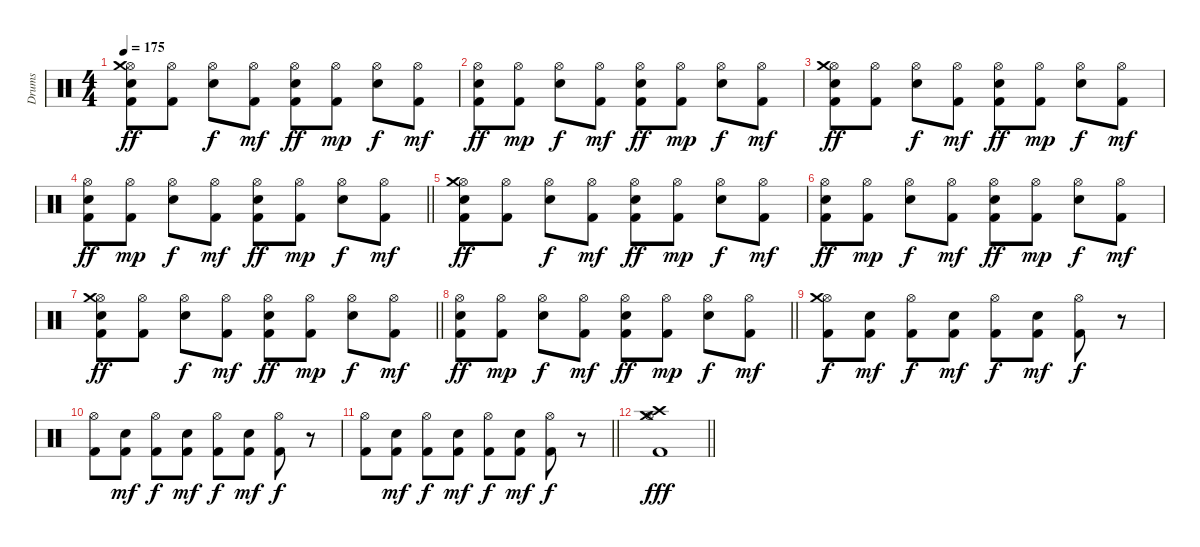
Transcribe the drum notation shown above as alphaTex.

\track ("Drums" "Drums") {instrument percussion}
\staff {score}
\articulation defaults
\ts (4 4)
\tempo 175
\clef neutral
\ks c
("Hi-Hat (open)" "Crash medium (hit)" "Electric Snare (hit)" "Kick (hit) 2").8{dy ff} ("Hi-Hat (open)" "Kick (hit) 2").8 ("Hi-Hat (open)" "Electric Snare (hit)").8{dy f} ("Hi-Hat (open)" "Kick (hit) 2").8{dy mf} ("Hi-Hat (open)" "Electric Snare (hit)" "Kick (hit) 2").8{dy ff} ("Hi-Hat (open)" "Kick (hit) 2").8{dy mp} ("Hi-Hat (open)" "Electric Snare (hit)").8{dy f} ("Hi-Hat (open)" "Kick (hit) 2").8{dy mf} |
("Hi-Hat (open)" "Electric Snare (hit)" "Kick (hit) 2").8{dy ff} ("Hi-Hat (open)" "Kick (hit) 2").8{dy mp} ("Hi-Hat (open)" "Electric Snare (hit)").8{dy f} ("Hi-Hat (open)" "Kick (hit) 2").8{dy mf} ("Hi-Hat (open)" "Electric Snare (hit)" "Kick (hit) 2").8{dy ff} ("Hi-Hat (open)" "Kick (hit) 2").8{dy mp} ("Hi-Hat (open)" "Electric Snare (hit)").8{dy f} ("Hi-Hat (open)" "Kick (hit) 2").8{dy mf} |
("Hi-Hat (open)" "Crash medium (hit)" "Electric Snare (hit)" "Kick (hit) 2").8{dy ff} ("Hi-Hat (open)" "Kick (hit) 2").8 ("Hi-Hat (open)" "Electric Snare (hit)").8{dy f} ("Hi-Hat (open)" "Kick (hit) 2").8{dy mf} ("Hi-Hat (open)" "Electric Snare (hit)" "Kick (hit) 2").8{dy ff} ("Hi-Hat (open)" "Kick (hit) 2").8{dy mp} ("Hi-Hat (open)" "Electric Snare (hit)").8{dy f} ("Hi-Hat (open)" "Kick (hit) 2").8{dy mf} |
\barLineRight lightlight
("Hi-Hat (open)" "Electric Snare (hit)" "Kick (hit) 2").8{dy ff} ("Hi-Hat (open)" "Kick (hit) 2").8{dy mp} ("Hi-Hat (open)" "Electric Snare (hit)").8{dy f} ("Hi-Hat (open)" "Kick (hit) 2").8{dy mf} ("Hi-Hat (open)" "Electric Snare (hit)" "Kick (hit) 2").8{dy ff} ("Hi-Hat (open)" "Kick (hit) 2").8{dy mp} ("Hi-Hat (open)" "Electric Snare (hit)").8{dy f} ("Hi-Hat (open)" "Kick (hit) 2").8{dy mf} |
("Hi-Hat (open)" "Crash medium (hit)" "Electric Snare (hit)" "Kick (hit) 2").8{dy ff} ("Hi-Hat (open)" "Kick (hit) 2").8 ("Hi-Hat (open)" "Electric Snare (hit)").8{dy f} ("Hi-Hat (open)" "Kick (hit) 2").8{dy mf} ("Hi-Hat (open)" "Electric Snare (hit)" "Kick (hit) 2").8{dy ff} ("Hi-Hat (open)" "Kick (hit) 2").8{dy mp} ("Hi-Hat (open)" "Electric Snare (hit)").8{dy f} ("Hi-Hat (open)" "Kick (hit) 2").8{dy mf} |
("Hi-Hat (open)" "Electric Snare (hit)" "Kick (hit) 2").8{dy ff} ("Hi-Hat (open)" "Kick (hit) 2").8{dy mp} ("Hi-Hat (open)" "Electric Snare (hit)").8{dy f} ("Hi-Hat (open)" "Kick (hit) 2").8{dy mf} ("Hi-Hat (open)" "Electric Snare (hit)" "Kick (hit) 2").8{dy ff} ("Hi-Hat (open)" "Kick (hit) 2").8{dy mp} ("Hi-Hat (open)" "Electric Snare (hit)").8{dy f} ("Hi-Hat (open)" "Kick (hit) 2").8{dy mf} |
\barLineRight lightlight
("Hi-Hat (open)" "Crash medium (hit)" "Electric Snare (hit)" "Kick (hit) 2").8{dy ff} ("Hi-Hat (open)" "Kick (hit) 2").8 ("Hi-Hat (open)" "Electric Snare (hit)").8{dy f} ("Hi-Hat (open)" "Kick (hit) 2").8{dy mf} ("Hi-Hat (open)" "Electric Snare (hit)" "Kick (hit) 2").8{dy ff} ("Hi-Hat (open)" "Kick (hit) 2").8{dy mp} ("Hi-Hat (open)" "Electric Snare (hit)").8{dy f} ("Hi-Hat (open)" "Kick (hit) 2").8{dy mf} |
\barLineRight lightlight
("Hi-Hat (open)" "Electric Snare (hit)" "Kick (hit) 2").8{dy ff} ("Hi-Hat (open)" "Kick (hit) 2").8{dy mp} ("Hi-Hat (open)" "Electric Snare (hit)").8{dy f} ("Hi-Hat (open)" "Kick (hit) 2").8{dy mf} ("Hi-Hat (open)" "Electric Snare (hit)" "Kick (hit) 2").8{dy ff} ("Hi-Hat (open)" "Kick (hit) 2").8{dy mp} ("Hi-Hat (open)" "Electric Snare (hit)").8{dy f} ("Hi-Hat (open)" "Kick (hit) 2").8{dy mf} |
("Hi-Hat (open)" "Crash medium (hit)" "Kick (hit) 2").8{dy f} ("Electric Snare (hit)" "Kick (hit) 2").8{dy mf} ("Hi-Hat (open)" "Kick (hit) 2").8{dy f} ("Electric Snare (hit)" "Kick (hit) 2").8{dy mf} ("Hi-Hat (open)" "Kick (hit) 2").8{dy f} ("Electric Snare (hit)" "Kick (hit) 2").8{dy mf} ("Hi-Hat (open)" "Kick (hit) 2").8{dy f} r.8 |
("Hi-Hat (open)" "Kick (hit) 2").8 ("Electric Snare (hit)" "Kick (hit) 2").8{dy mf} ("Hi-Hat (open)" "Kick (hit) 2").8{dy f} ("Electric Snare (hit)" "Kick (hit) 2").8{dy mf} ("Hi-Hat (open)" "Kick (hit) 2").8{dy f} ("Electric Snare (hit)" "Kick (hit) 2").8{dy mf} ("Hi-Hat (open)" "Kick (hit) 2").8{dy f} r.8 |
\barLineRight lightlight
("Hi-Hat (open)" "Kick (hit) 2").8 ("Electric Snare (hit)" "Kick (hit) 2").8{dy mf} ("Hi-Hat (open)" "Kick (hit) 2").8{dy f} ("Electric Snare (hit)" "Kick (hit) 2").8{dy mf} ("Hi-Hat (open)" "Kick (hit) 2").8{dy f} ("Electric Snare (hit)" "Kick (hit) 2").8{dy mf} ("Hi-Hat (open)" "Kick (hit) 2").8{dy f} r.8 |
\barLineRight lightlight
("Hi-Hat (open)" "Crash medium (hit)" "Crash high (hit)" "Kick (hit) 2").1{dy fff}
